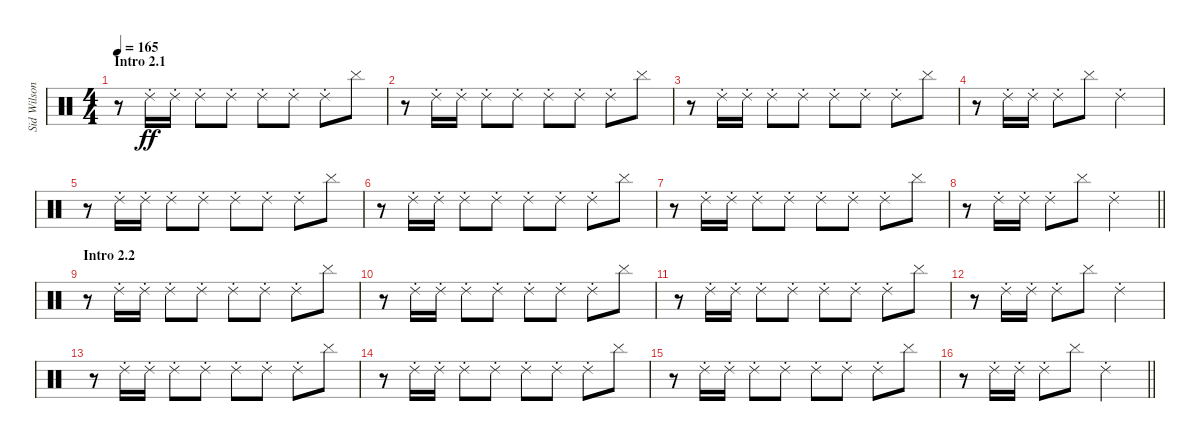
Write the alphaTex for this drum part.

\track ("Sid Wilson" "Sid Wilson") {instrument percussion}
\staff {score}
\articulation defaults
\ts (4 4)
\section ("" "Intro 2.1")
\tempo 165
\clef neutral
\ks c
r.8{dy ff} "Ride (choke) 2".16 "Ride (choke) 2".16 "Ride (choke) 2".8 "Ride (choke) 2".8 "Ride (choke) 2".8 "Ride (choke) 2".8 "Ride (choke) 2".8 "Cymbal (hit)".8 |
r.8 "Ride (choke) 2".16 "Ride (choke) 2".16 "Ride (choke) 2".8 "Ride (choke) 2".8 "Ride (choke) 2".8 "Ride (choke) 2".8 "Ride (choke) 2".8 "Cymbal (hit)".8 |
r.8 "Ride (choke) 2".16 "Ride (choke) 2".16 "Ride (choke) 2".8 "Ride (choke) 2".8 "Ride (choke) 2".8 "Ride (choke) 2".8 "Ride (choke) 2".8 "Cymbal (hit)".8 |
r.8 "Ride (choke) 2".16 "Ride (choke) 2".16 "Ride (choke) 2".8 "Cymbal (hit)".8 "Ride (choke) 2".2 |
r.8 "Ride (choke) 2".16 "Ride (choke) 2".16 "Ride (choke) 2".8 "Ride (choke) 2".8 "Ride (choke) 2".8 "Ride (choke) 2".8 "Ride (choke) 2".8 "Cymbal (hit)".8 |
r.8 "Ride (choke) 2".16 "Ride (choke) 2".16 "Ride (choke) 2".8 "Ride (choke) 2".8 "Ride (choke) 2".8 "Ride (choke) 2".8 "Ride (choke) 2".8 "Cymbal (hit)".8 |
r.8 "Ride (choke) 2".16 "Ride (choke) 2".16 "Ride (choke) 2".8 "Ride (choke) 2".8 "Ride (choke) 2".8 "Ride (choke) 2".8 "Ride (choke) 2".8 "Cymbal (hit)".8 |
\barLineRight lightlight
r.8 "Ride (choke) 2".16 "Ride (choke) 2".16 "Ride (choke) 2".8 "Cymbal (hit)".8 "Ride (choke) 2".2 |
\section ("" "Intro 2.2")
r.8 "Ride (choke) 2".16 "Ride (choke) 2".16 "Ride (choke) 2".8 "Ride (choke) 2".8 "Ride (choke) 2".8 "Ride (choke) 2".8 "Ride (choke) 2".8 "Cymbal (hit)".8 |
r.8 "Ride (choke) 2".16 "Ride (choke) 2".16 "Ride (choke) 2".8 "Ride (choke) 2".8 "Ride (choke) 2".8 "Ride (choke) 2".8 "Ride (choke) 2".8 "Cymbal (hit)".8 |
r.8 "Ride (choke) 2".16 "Ride (choke) 2".16 "Ride (choke) 2".8 "Ride (choke) 2".8 "Ride (choke) 2".8 "Ride (choke) 2".8 "Ride (choke) 2".8 "Cymbal (hit)".8 |
r.8 "Ride (choke) 2".16 "Ride (choke) 2".16 "Ride (choke) 2".8 "Cymbal (hit)".8 "Ride (choke) 2".2 |
r.8 "Ride (choke) 2".16 "Ride (choke) 2".16 "Ride (choke) 2".8 "Ride (choke) 2".8 "Ride (choke) 2".8 "Ride (choke) 2".8 "Ride (choke) 2".8 "Cymbal (hit)".8 |
r.8 "Ride (choke) 2".16 "Ride (choke) 2".16 "Ride (choke) 2".8 "Ride (choke) 2".8 "Ride (choke) 2".8 "Ride (choke) 2".8 "Ride (choke) 2".8 "Cymbal (hit)".8 |
r.8 "Ride (choke) 2".16 "Ride (choke) 2".16 "Ride (choke) 2".8 "Ride (choke) 2".8 "Ride (choke) 2".8 "Ride (choke) 2".8 "Ride (choke) 2".8 "Cymbal (hit)".8 |
\barLineRight lightlight
r.8 "Ride (choke) 2".16 "Ride (choke) 2".16 "Ride (choke) 2".8 "Cymbal (hit)".8 "Ride (choke) 2".2
